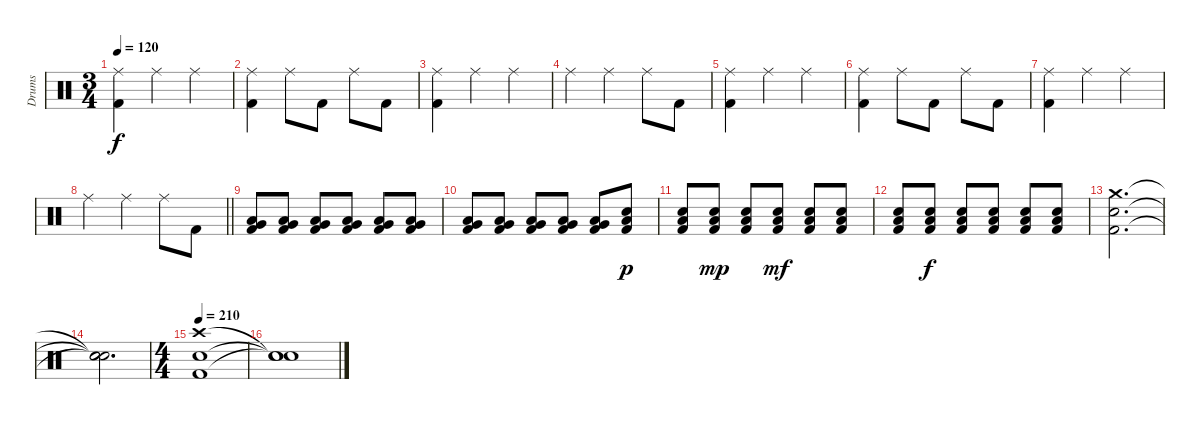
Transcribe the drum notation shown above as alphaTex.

\track ("Drums" "Drums") {instrument percussion}
\staff {score}
\articulation defaults
\ts (3 4)
\section ("" "")
\tempo 120
\clef neutral
\ks c
("Ride (middle)" "Kick (hit) 2").4{dy f} "Ride (middle)".4 "Ride (middle)".4 |
("Ride (middle)" "Kick (hit) 2").4 "Ride (middle)".8 "Kick (hit) 2".8 "Ride (middle)".8 "Kick (hit) 2".8 |
("Ride (middle)" "Kick (hit) 2").4 "Ride (middle)".4 "Ride (middle)".4 |
"Ride (middle)".4 "Ride (middle)".4 "Ride (middle)".8 "Kick (hit) 2".8 |
("Ride (middle)" "Kick (hit) 2").4 "Ride (middle)".4 "Ride (middle)".4 |
("Ride (middle)" "Kick (hit) 2").4 "Ride (middle)".8 "Kick (hit) 2".8 "Ride (middle)".8 "Kick (hit) 2".8 |
("Ride (middle)" "Kick (hit) 2").4 "Ride (middle)".4 "Ride (middle)".4 |
\barLineRight lightlight "Ride (middle)".4 "Ride (middle)".4 "Ride (middle)".8 "Kick (hit) 2".8
|
\section ("" "")
("Very Low Tom (hit)" "Low Floor Tom (hit)" "Kick (hit) 2").8 ("Very Low Tom (hit)" "Low Floor Tom (hit)" "Kick (hit) 2").8 ("Very Low Tom (hit)" "Low Floor Tom (hit)" "Kick (hit) 2").8 ("Very Low Tom (hit)" "Low Floor Tom (hit)" "Kick (hit) 2").8 ("Very Low Tom (hit)" "Low Floor Tom (hit)" "Kick (hit) 2").8 ("Very Low Tom (hit)" "Low Floor Tom (hit)" "Kick (hit) 2").8 |
("Very Low Tom (hit)" "Low Floor Tom (hit)" "Kick (hit) 2").8 ("Very Low Tom (hit)" "Low Floor Tom (hit)" "Kick (hit) 2").8 ("Very Low Tom (hit)" "Low Floor Tom (hit)" "Kick (hit) 2").8 ("Very Low Tom (hit)" "Low Floor Tom (hit)" "Kick (hit) 2").8 ("Very Low Tom (hit)" "Low Floor Tom (hit)" "Kick (hit) 2").8 ("Snare (hit) 2" "Low Floor Tom (hit)" "Kick (hit) 2").8{dy p} |
("Snare (hit) 2" "Low Floor Tom (hit)" "Kick (hit) 2").8 ("Snare (hit) 2" "Low Floor Tom (hit)" "Kick (hit) 2").8{dy mp} ("Snare (hit) 2" "Low Floor Tom (hit)" "Kick (hit) 2").8 ("Snare (hit) 2" "Low Floor Tom (hit)" "Kick (hit) 2").8{dy mf} ("Snare (hit) 2" "Low Floor Tom (hit)" "Kick (hit) 2").8 ("Snare (hit) 2" "Low Floor Tom (hit)" "Kick (hit) 2").8 |
("Snare (hit) 2" "Low Floor Tom (hit)" "Kick (hit) 2").8 ("Snare (hit) 2" "Low Floor Tom (hit)" "Kick (hit) 2").8{dy f} ("Snare (hit) 2" "Low Floor Tom (hit)" "Kick (hit) 2").8 ("Snare (hit) 2" "Low Floor Tom (hit)" "Kick (hit) 2").8 ("Snare (hit) 2" "Low Floor Tom (hit)" "Kick (hit) 2").8 ("Snare (hit) 2" "Low Floor Tom (hit)" "Kick (hit) 2").8 |
("Crash medium (hit)" "Snare (hit) 2" "Kick (hit) 2").2{d} |
("Snare (hit)"{t} "Snare (hit)"{t} "Snare (hit)"{t}).2{d} |
\ts (4 4)
\tempo 210
("Crash high (hit)" "Snare (hit) 2" "Kick (hit) 2").1 |
("Snare (hit)"{t} "Snare (hit)"{t} "Snare (hit)"{t}).1
